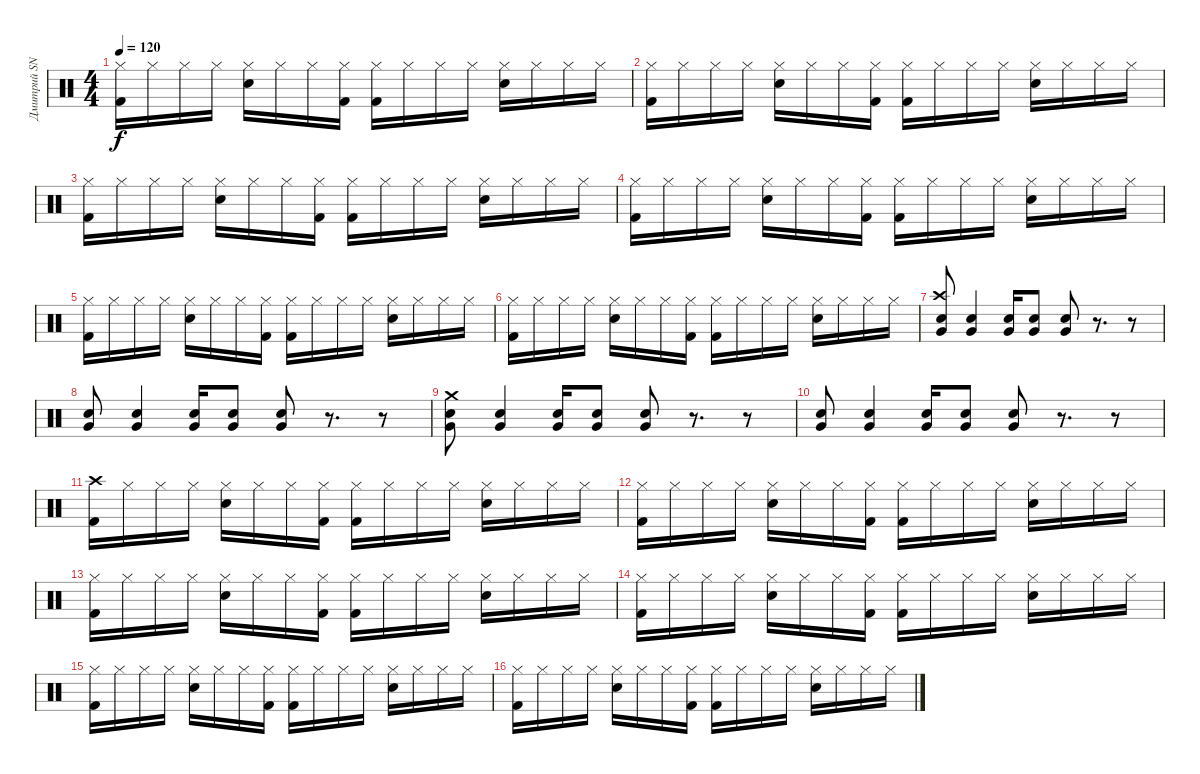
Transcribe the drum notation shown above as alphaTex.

\track ("Дмитрий SNAKE Хакимов" "Дмитрий SN") {instrument percussion}
\staff {score}
\articulation defaults
\ts (4 4)
\tempo 120
\clef neutral
\ks c
("Hi-Hat (closed)" "Kick (hit) 2").16{dy f} "Hi-Hat (closed)".16 "Hi-Hat (closed)".16 "Hi-Hat (closed)".16 ("Hi-Hat (closed)" "Snare (hit) 2").16 "Hi-Hat (closed)".16 "Hi-Hat (closed)".16 ("Hi-Hat (closed)" "Kick (hit) 2").16 ("Hi-Hat (closed)" "Kick (hit) 2").16 "Hi-Hat (closed)".16 "Hi-Hat (closed)".16 "Hi-Hat (closed)".16 ("Hi-Hat (closed)" "Snare (hit) 2").16 "Hi-Hat (closed)".16 "Hi-Hat (closed)".16 "Hi-Hat (closed)".16 |
("Hi-Hat (closed)" "Kick (hit) 2").16 "Hi-Hat (closed)".16 "Hi-Hat (closed)".16 "Hi-Hat (closed)".16 ("Hi-Hat (closed)" "Snare (hit) 2").16 "Hi-Hat (closed)".16 "Hi-Hat (closed)".16 ("Hi-Hat (closed)" "Kick (hit) 2").16 ("Hi-Hat (closed)" "Kick (hit) 2").16 "Hi-Hat (closed)".16 "Hi-Hat (closed)".16 "Hi-Hat (closed)".16 ("Hi-Hat (closed)" "Snare (hit) 2").16 "Hi-Hat (closed)".16 "Hi-Hat (closed)".16 "Hi-Hat (closed)".16 |
("Hi-Hat (closed)" "Kick (hit) 2").16 "Hi-Hat (closed)".16 "Hi-Hat (closed)".16 "Hi-Hat (closed)".16 ("Hi-Hat (closed)" "Snare (hit) 2").16 "Hi-Hat (closed)".16 "Hi-Hat (closed)".16 ("Hi-Hat (closed)" "Kick (hit) 2").16 ("Hi-Hat (closed)" "Kick (hit) 2").16 "Hi-Hat (closed)".16 "Hi-Hat (closed)".16 "Hi-Hat (closed)".16 ("Hi-Hat (closed)" "Snare (hit) 2").16 "Hi-Hat (closed)".16 "Hi-Hat (closed)".16 "Hi-Hat (closed)".16 |
("Hi-Hat (closed)" "Kick (hit) 2").16 "Hi-Hat (closed)".16 "Hi-Hat (closed)".16 "Hi-Hat (closed)".16 ("Hi-Hat (closed)" "Snare (hit) 2").16 "Hi-Hat (closed)".16 "Hi-Hat (closed)".16 ("Hi-Hat (closed)" "Kick (hit) 2").16 ("Hi-Hat (closed)" "Kick (hit) 2").16 "Hi-Hat (closed)".16 "Hi-Hat (closed)".16 "Hi-Hat (closed)".16 ("Hi-Hat (closed)" "Snare (hit) 2").16 "Hi-Hat (closed)".16 "Hi-Hat (closed)".16 "Hi-Hat (closed)".16 |
("Hi-Hat (closed)" "Kick (hit) 2").16 "Hi-Hat (closed)".16 "Hi-Hat (closed)".16 "Hi-Hat (closed)".16 ("Hi-Hat (closed)" "Snare (hit) 2").16 "Hi-Hat (closed)".16 "Hi-Hat (closed)".16 ("Hi-Hat (closed)" "Kick (hit) 2").16 ("Hi-Hat (closed)" "Kick (hit) 2").16 "Hi-Hat (closed)".16 "Hi-Hat (closed)".16 "Hi-Hat (closed)".16 ("Hi-Hat (closed)" "Snare (hit) 2").16 "Hi-Hat (closed)".16 "Hi-Hat (closed)".16 "Hi-Hat (closed)".16 |
("Hi-Hat (closed)" "Kick (hit) 2").16 "Hi-Hat (closed)".16 "Hi-Hat (closed)".16 "Hi-Hat (closed)".16 ("Hi-Hat (closed)" "Snare (hit) 2").16 "Hi-Hat (closed)".16 "Hi-Hat (closed)".16 ("Hi-Hat (closed)" "Kick (hit) 2").16 ("Hi-Hat (closed)" "Kick (hit) 2").16 "Hi-Hat (closed)".16 "Hi-Hat (closed)".16 "Hi-Hat (closed)".16 ("Hi-Hat (closed)" "Snare (hit) 2").16 "Hi-Hat (closed)".16 "Hi-Hat (closed)".16 "Hi-Hat (closed)".16 |
("Crash high (hit)" "Snare (hit) 2" "Very Low Tom (hit)").8 ("Snare (hit) 2" "Very Low Tom (hit)").4 ("Snare (hit) 2" "Very Low Tom (hit)").16 ("Snare (hit) 2" "Very Low Tom (hit)").8 ("Snare (hit) 2" "Very Low Tom (hit)").8 r.8{d} r.8 |
("Snare (hit) 2" "Very Low Tom (hit)").8 ("Snare (hit) 2" "Very Low Tom (hit)").4 ("Snare (hit) 2" "Very Low Tom (hit)").16 ("Snare (hit) 2" "Very Low Tom (hit)").8 ("Snare (hit) 2" "Very Low Tom (hit)").8 r.8{d} r.8 |
("Crash medium (hit)" "Snare (hit) 2" "Very Low Tom (hit)").8 ("Snare (hit) 2" "Very Low Tom (hit)").4 ("Snare (hit) 2" "Very Low Tom (hit)").16 ("Snare (hit) 2" "Very Low Tom (hit)").8 ("Snare (hit) 2" "Very Low Tom (hit)").8 r.8{d} r.8 |
("Snare (hit) 2" "Very Low Tom (hit)").8 ("Snare (hit) 2" "Very Low Tom (hit)").4 ("Snare (hit) 2" "Very Low Tom (hit)").16 ("Snare (hit) 2" "Very Low Tom (hit)").8 ("Snare (hit) 2" "Very Low Tom (hit)").8 r.8{d} r.8 |
("Crash high (hit)" "Kick (hit) 2").16 "Hi-Hat (closed)".16 "Hi-Hat (closed)".16 "Hi-Hat (closed)".16 ("Hi-Hat (closed)" "Snare (hit) 2").16 "Hi-Hat (closed)".16 "Hi-Hat (closed)".16 ("Hi-Hat (closed)" "Kick (hit) 2").16 ("Hi-Hat (closed)" "Kick (hit) 2").16 "Hi-Hat (closed)".16 "Hi-Hat (closed)".16 "Hi-Hat (closed)".16 ("Hi-Hat (closed)" "Snare (hit) 2").16 "Hi-Hat (closed)".16 "Hi-Hat (closed)".16 "Hi-Hat (closed)".16 |
("Hi-Hat (closed)" "Kick (hit) 2").16 "Hi-Hat (closed)".16 "Hi-Hat (closed)".16 "Hi-Hat (closed)".16 ("Hi-Hat (closed)" "Snare (hit) 2").16 "Hi-Hat (closed)".16 "Hi-Hat (closed)".16 ("Hi-Hat (closed)" "Kick (hit) 2").16 ("Hi-Hat (closed)" "Kick (hit) 2").16 "Hi-Hat (closed)".16 "Hi-Hat (closed)".16 "Hi-Hat (closed)".16 ("Hi-Hat (closed)" "Snare (hit) 2").16 "Hi-Hat (closed)".16 "Hi-Hat (closed)".16 "Hi-Hat (closed)".16 |
("Hi-Hat (closed)" "Kick (hit) 2").16 "Hi-Hat (closed)".16 "Hi-Hat (closed)".16 "Hi-Hat (closed)".16 ("Hi-Hat (closed)" "Snare (hit) 2").16 "Hi-Hat (closed)".16 "Hi-Hat (closed)".16 ("Hi-Hat (closed)" "Kick (hit) 2").16 ("Hi-Hat (closed)" "Kick (hit) 2").16 "Hi-Hat (closed)".16 "Hi-Hat (closed)".16 "Hi-Hat (closed)".16 ("Hi-Hat (closed)" "Snare (hit) 2").16 "Hi-Hat (closed)".16 "Hi-Hat (closed)".16 "Hi-Hat (closed)".16 |
("Hi-Hat (closed)" "Kick (hit) 2").16 "Hi-Hat (closed)".16 "Hi-Hat (closed)".16 "Hi-Hat (closed)".16 ("Hi-Hat (closed)" "Snare (hit) 2").16 "Hi-Hat (closed)".16 "Hi-Hat (closed)".16 ("Hi-Hat (closed)" "Kick (hit) 2").16 ("Hi-Hat (closed)" "Kick (hit) 2").16 "Hi-Hat (closed)".16 "Hi-Hat (closed)".16 "Hi-Hat (closed)".16 ("Hi-Hat (closed)" "Snare (hit) 2").16 "Hi-Hat (closed)".16 "Hi-Hat (closed)".16 "Hi-Hat (closed)".16 |
("Hi-Hat (closed)" "Kick (hit) 2").16 "Hi-Hat (closed)".16 "Hi-Hat (closed)".16 "Hi-Hat (closed)".16 ("Hi-Hat (closed)" "Snare (hit) 2").16 "Hi-Hat (closed)".16 "Hi-Hat (closed)".16 ("Hi-Hat (closed)" "Kick (hit) 2").16 ("Hi-Hat (closed)" "Kick (hit) 2").16 "Hi-Hat (closed)".16 "Hi-Hat (closed)".16 "Hi-Hat (closed)".16 ("Hi-Hat (closed)" "Snare (hit) 2").16 "Hi-Hat (closed)".16 "Hi-Hat (closed)".16 "Hi-Hat (closed)".16 |
("Hi-Hat (closed)" "Kick (hit) 2").16 "Hi-Hat (closed)".16 "Hi-Hat (closed)".16 "Hi-Hat (closed)".16 ("Hi-Hat (closed)" "Snare (hit) 2").16 "Hi-Hat (closed)".16 "Hi-Hat (closed)".16 ("Hi-Hat (closed)" "Kick (hit) 2").16 ("Hi-Hat (closed)" "Kick (hit) 2").16 "Hi-Hat (closed)".16 "Hi-Hat (closed)".16 "Hi-Hat (closed)".16 ("Hi-Hat (closed)" "Snare (hit) 2").16 "Hi-Hat (closed)".16 "Hi-Hat (closed)".16 "Hi-Hat (closed)".16
